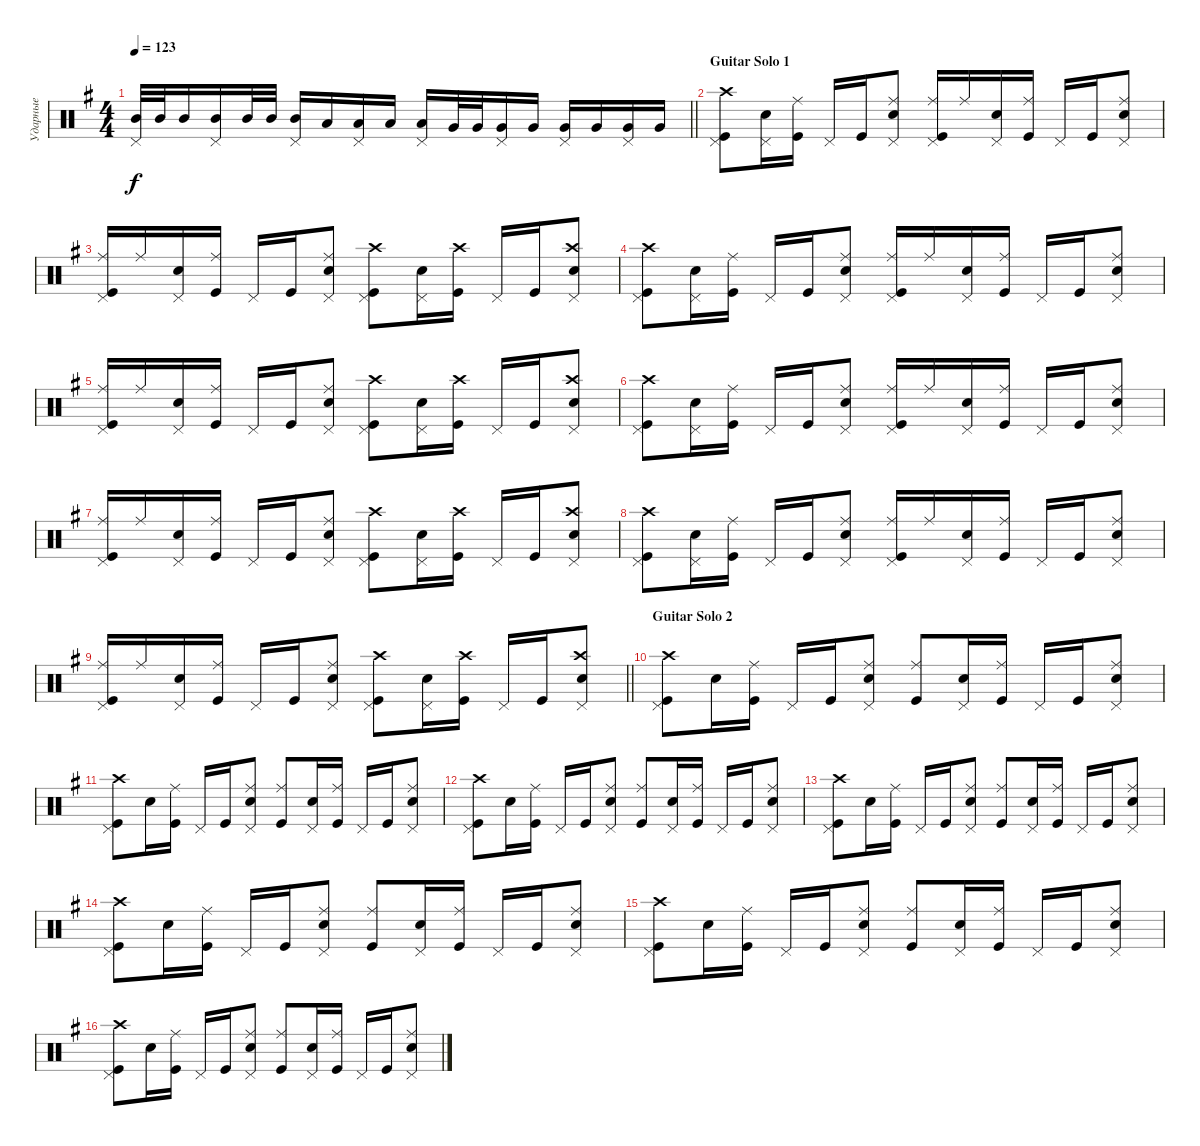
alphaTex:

\track ("Ударные" "Ударные") {instrument percussion}
\staff {score}
\articulation defaults
\ts (4 4)
\tempo 123
\clef neutral
\barLineRight lightlight
\ks eminor
("Mid Tom (hit)" "Pedal Hi-Hat (hit)").32{dy f} "Mid Tom (hit)".32 "Mid Tom (hit)".16 ("Mid Tom (hit)" "Pedal Hi-Hat (hit)").16 "Mid Tom (hit)".32 "Mid Tom (hit)".32 ("Pedal Hi-Hat (hit)" "Mid Tom (hit)").16 "Low Tom (hit)".16 ("Low Tom (hit)" "Pedal Hi-Hat (hit)").16 "Low Tom (hit)".16 ("Low Tom (hit)" "Pedal Hi-Hat (hit)").16 "Very Low Tom (hit)".32 "Very Low Tom (hit)".32 ("Very Low Tom (hit)" "Pedal Hi-Hat (hit)").16 "Very Low Tom (hit)".16 ("Very Low Tom (hit)" "Pedal Hi-Hat (hit)").16 "Very Low Tom (hit)".16 ("Pedal Hi-Hat (hit)" "Very Low Tom (hit)").16 "Very Low Tom (hit)".16 |
\section ("" "Guitar Solo 1")
("Kick (hit)" "Crash high (hit)" "Pedal Hi-Hat (hit)").8 ("Snare (hit) 2" "Pedal Hi-Hat (hit)").16 ("Kick (hit)" "Ride (middle)").16 "Pedal Hi-Hat (hit)".16 "Kick (hit)".16 ("Snare (hit) 2" "Ride (middle)" "Pedal Hi-Hat (hit)").8 ("Kick (hit)" "Ride (middle)" "Pedal Hi-Hat (hit)").16 "Ride (middle)".16 ("Snare (hit) 2" "Pedal Hi-Hat (hit)").16 ("Kick (hit)" "Ride (middle)").16 "Pedal Hi-Hat (hit)".16 "Kick (hit)".16 ("Snare (hit) 2" "Ride (middle)" "Pedal Hi-Hat (hit)").8 |
("Kick (hit)" "Ride (middle)" "Pedal Hi-Hat (hit)").16 "Ride (middle)".16 ("Snare (hit) 2" "Pedal Hi-Hat (hit)").16 ("Kick (hit)" "Ride (middle)").16 "Pedal Hi-Hat (hit)".16 "Kick (hit)".16 ("Snare (hit) 2" "Ride (middle)" "Pedal Hi-Hat (hit)").8 ("Kick (hit)" "Crash high (hit)" "Pedal Hi-Hat (hit)").8 ("Snare (hit) 2" "Pedal Hi-Hat (hit)").16 ("Kick (hit)" "Crash high (hit)").16 "Pedal Hi-Hat (hit)".16 "Kick (hit)".16 ("Snare (hit) 2" "Crash high (hit)" "Pedal Hi-Hat (hit)").8 |
("Kick (hit)" "Crash high (hit)" "Pedal Hi-Hat (hit)").8 ("Snare (hit) 2" "Pedal Hi-Hat (hit)").16 ("Kick (hit)" "Ride (middle)").16 "Pedal Hi-Hat (hit)".16 "Kick (hit)".16 ("Snare (hit) 2" "Ride (middle)" "Pedal Hi-Hat (hit)").8 ("Kick (hit)" "Ride (middle)" "Pedal Hi-Hat (hit)").16 "Ride (middle)".16 ("Snare (hit) 2" "Pedal Hi-Hat (hit)").16 ("Kick (hit)" "Ride (middle)").16 "Pedal Hi-Hat (hit)".16 "Kick (hit)".16 ("Snare (hit) 2" "Ride (middle)" "Pedal Hi-Hat (hit)").8 |
("Kick (hit)" "Ride (middle)" "Pedal Hi-Hat (hit)").16 "Ride (middle)".16 ("Snare (hit) 2" "Pedal Hi-Hat (hit)").16 ("Kick (hit)" "Ride (middle)").16 "Pedal Hi-Hat (hit)".16 "Kick (hit)".16 ("Snare (hit) 2" "Ride (middle)" "Pedal Hi-Hat (hit)").8 ("Kick (hit)" "Crash high (hit)" "Pedal Hi-Hat (hit)").8 ("Snare (hit) 2" "Pedal Hi-Hat (hit)").16 ("Kick (hit)" "Crash high (hit)").16 "Pedal Hi-Hat (hit)".16 "Kick (hit)".16 ("Snare (hit) 2" "Crash high (hit)" "Pedal Hi-Hat (hit)").8 |
("Kick (hit)" "Crash high (hit)" "Pedal Hi-Hat (hit)").8 ("Snare (hit) 2" "Pedal Hi-Hat (hit)").16 ("Kick (hit)" "Ride (middle)").16 "Pedal Hi-Hat (hit)".16 "Kick (hit)".16 ("Snare (hit) 2" "Ride (middle)" "Pedal Hi-Hat (hit)").8 ("Kick (hit)" "Ride (middle)" "Pedal Hi-Hat (hit)").16 "Ride (middle)".16 ("Snare (hit) 2" "Pedal Hi-Hat (hit)").16 ("Kick (hit)" "Ride (middle)").16 "Pedal Hi-Hat (hit)".16 "Kick (hit)".16 ("Snare (hit) 2" "Ride (middle)" "Pedal Hi-Hat (hit)").8 |
("Kick (hit)" "Ride (middle)" "Pedal Hi-Hat (hit)").16 "Ride (middle)".16 ("Snare (hit) 2" "Pedal Hi-Hat (hit)").16 ("Kick (hit)" "Ride (middle)").16 "Pedal Hi-Hat (hit)".16 "Kick (hit)".16 ("Snare (hit) 2" "Ride (middle)" "Pedal Hi-Hat (hit)").8 ("Kick (hit)" "Crash high (hit)" "Pedal Hi-Hat (hit)").8 ("Snare (hit) 2" "Pedal Hi-Hat (hit)").16 ("Kick (hit)" "Crash high (hit)").16 "Pedal Hi-Hat (hit)".16 "Kick (hit)".16 ("Snare (hit) 2" "Crash high (hit)" "Pedal Hi-Hat (hit)").8 |
("Kick (hit)" "Crash high (hit)" "Pedal Hi-Hat (hit)").8 ("Snare (hit) 2" "Pedal Hi-Hat (hit)").16 ("Kick (hit)" "Ride (middle)").16 "Pedal Hi-Hat (hit)".16 "Kick (hit)".16 ("Snare (hit) 2" "Ride (middle)" "Pedal Hi-Hat (hit)").8 ("Kick (hit)" "Ride (middle)" "Pedal Hi-Hat (hit)").16 "Ride (middle)".16 ("Snare (hit) 2" "Pedal Hi-Hat (hit)").16 ("Kick (hit)" "Ride (middle)").16 "Pedal Hi-Hat (hit)".16 "Kick (hit)".16 ("Snare (hit) 2" "Ride (middle)" "Pedal Hi-Hat (hit)").8 |
\barLineRight lightlight
("Kick (hit)" "Ride (middle)" "Pedal Hi-Hat (hit)").16 "Ride (middle)".16 ("Snare (hit) 2" "Pedal Hi-Hat (hit)").16 ("Kick (hit)" "Ride (middle)").16 "Pedal Hi-Hat (hit)".16 "Kick (hit)".16 ("Snare (hit) 2" "Ride (middle)" "Pedal Hi-Hat (hit)").8 ("Kick (hit)" "Crash high (hit)" "Pedal Hi-Hat (hit)").8 ("Snare (hit) 2" "Pedal Hi-Hat (hit)").16 ("Kick (hit)" "Crash high (hit)").16 "Pedal Hi-Hat (hit)".16 "Kick (hit)".16 ("Snare (hit) 2" "Crash high (hit)" "Pedal Hi-Hat (hit)").8 |
\section ("" "Guitar Solo 2")
("Kick (hit)" "Crash high (hit)" "Pedal Hi-Hat (hit)").8 "Snare (hit) 2".16 ("Kick (hit)" "Ride (middle)").16 "Pedal Hi-Hat (hit)".16 "Kick (hit)".16 ("Snare (hit) 2" "Ride (middle)" "Pedal Hi-Hat (hit)").8 ("Kick (hit)" "Ride (middle)").8 ("Snare (hit) 2" "Pedal Hi-Hat (hit)").16 ("Kick (hit)" "Ride (middle)").16 "Pedal Hi-Hat (hit)".16 "Kick (hit)".16 ("Snare (hit) 2" "Ride (middle)" "Pedal Hi-Hat (hit)").8 |
("Kick (hit)" "Crash high (hit)" "Pedal Hi-Hat (hit)").8 "Snare (hit) 2".16 ("Kick (hit)" "Ride (middle)").16 "Pedal Hi-Hat (hit)".16 "Kick (hit)".16 ("Snare (hit) 2" "Ride (middle)" "Pedal Hi-Hat (hit)").8 ("Kick (hit)" "Ride (middle)").8 ("Snare (hit) 2" "Pedal Hi-Hat (hit)").16 ("Kick (hit)" "Ride (middle)").16 "Pedal Hi-Hat (hit)".16 "Kick (hit)".16 ("Snare (hit) 2" "Ride (middle)" "Pedal Hi-Hat (hit)").8 |
("Kick (hit)" "Crash high (hit)" "Pedal Hi-Hat (hit)").8 "Snare (hit) 2".16 ("Kick (hit)" "Ride (middle)").16 "Pedal Hi-Hat (hit)".16 "Kick (hit)".16 ("Snare (hit) 2" "Ride (middle)" "Pedal Hi-Hat (hit)").8 ("Kick (hit)" "Ride (middle)").8 ("Snare (hit) 2" "Pedal Hi-Hat (hit)").16 ("Kick (hit)" "Ride (middle)").16 "Pedal Hi-Hat (hit)".16 "Kick (hit)".16 ("Snare (hit) 2" "Ride (middle)" "Pedal Hi-Hat (hit)").8 |
("Kick (hit)" "Crash high (hit)" "Pedal Hi-Hat (hit)").8 "Snare (hit) 2".16 ("Kick (hit)" "Ride (middle)").16 "Pedal Hi-Hat (hit)".16 "Kick (hit)".16 ("Snare (hit) 2" "Ride (middle)" "Pedal Hi-Hat (hit)").8 ("Kick (hit)" "Ride (middle)").8 ("Snare (hit) 2" "Pedal Hi-Hat (hit)").16 ("Kick (hit)" "Ride (middle)").16 "Pedal Hi-Hat (hit)".16 "Kick (hit)".16 ("Snare (hit) 2" "Ride (middle)" "Pedal Hi-Hat (hit)").8 |
("Kick (hit)" "Crash high (hit)" "Pedal Hi-Hat (hit)").8 "Snare (hit) 2".16 ("Kick (hit)" "Ride (middle)").16 "Pedal Hi-Hat (hit)".16 "Kick (hit)".16 ("Snare (hit) 2" "Ride (middle)" "Pedal Hi-Hat (hit)").8 ("Kick (hit)" "Ride (middle)").8 ("Snare (hit) 2" "Pedal Hi-Hat (hit)").16 ("Kick (hit)" "Ride (middle)").16 "Pedal Hi-Hat (hit)".16 "Kick (hit)".16 ("Snare (hit) 2" "Ride (middle)" "Pedal Hi-Hat (hit)").8 |
("Kick (hit)" "Crash high (hit)" "Pedal Hi-Hat (hit)").8 "Snare (hit) 2".16 ("Kick (hit)" "Ride (middle)").16 "Pedal Hi-Hat (hit)".16 "Kick (hit)".16 ("Snare (hit) 2" "Ride (middle)" "Pedal Hi-Hat (hit)").8 ("Kick (hit)" "Ride (middle)").8 ("Snare (hit) 2" "Pedal Hi-Hat (hit)").16 ("Kick (hit)" "Ride (middle)").16 "Pedal Hi-Hat (hit)".16 "Kick (hit)".16 ("Snare (hit) 2" "Ride (middle)" "Pedal Hi-Hat (hit)").8 |
("Kick (hit)" "Crash high (hit)" "Pedal Hi-Hat (hit)").8 "Snare (hit) 2".16 ("Kick (hit)" "Ride (middle)").16 "Pedal Hi-Hat (hit)".16 "Kick (hit)".16 ("Snare (hit) 2" "Ride (middle)" "Pedal Hi-Hat (hit)").8 ("Kick (hit)" "Ride (middle)").8 ("Snare (hit) 2" "Pedal Hi-Hat (hit)").16 ("Kick (hit)" "Ride (middle)").16 "Pedal Hi-Hat (hit)".16 "Kick (hit)".16 ("Snare (hit) 2" "Ride (middle)" "Pedal Hi-Hat (hit)").8
